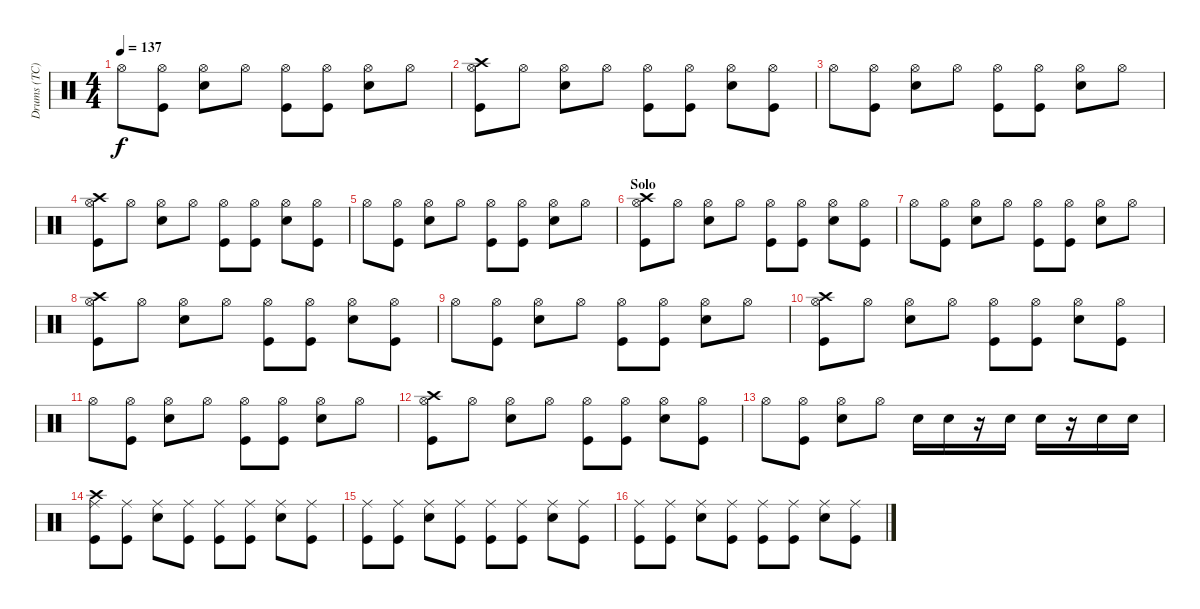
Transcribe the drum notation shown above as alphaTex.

\track ("Drums (TC)" "Drums (TC)") {instrument percussion}
\staff {score}
\articulation defaults
\ts (4 4)
\tempo 137
\clef neutral
\ks c "Hi-Hat (open)".8{dy f}
("Hi-Hat (open)" "Kick (hit)").8 ("Snare (hit) 2" "Hi-Hat (open)").8 "Hi-Hat (open)".8 ("Hi-Hat (open)" "Kick (hit)").8 ("Hi-Hat (open)" "Kick (hit)").8 ("Snare (hit) 2" "Hi-Hat (open)").8 "Hi-Hat (open)".8 |
("Crash high (hit)" "Hi-Hat (open)" "Kick (hit)").8 "Hi-Hat (open)".8 ("Snare (hit) 2" "Hi-Hat (open)").8 "Hi-Hat (open)".8 ("Hi-Hat (open)" "Kick (hit)").8 ("Hi-Hat (open)" "Kick (hit)").8 ("Snare (hit) 2" "Hi-Hat (open)").8 ("Hi-Hat (open)" "Kick (hit)").8 |
"Hi-Hat (open)".8 ("Hi-Hat (open)" "Kick (hit)").8 ("Snare (hit) 2" "Hi-Hat (open)").8 "Hi-Hat (open)".8 ("Hi-Hat (open)" "Kick (hit)").8 ("Hi-Hat (open)" "Kick (hit)").8 ("Snare (hit) 2" "Hi-Hat (open)").8 "Hi-Hat (open)".8 |
("Crash high (hit)" "Hi-Hat (open)" "Kick (hit)").8 "Hi-Hat (open)".8 ("Snare (hit) 2" "Hi-Hat (open)").8 "Hi-Hat (open)".8 ("Hi-Hat (open)" "Kick (hit)").8 ("Hi-Hat (open)" "Kick (hit)").8 ("Snare (hit) 2" "Hi-Hat (open)").8 ("Hi-Hat (open)" "Kick (hit)").8 |
"Hi-Hat (open)".8 ("Hi-Hat (open)" "Kick (hit)").8 ("Snare (hit) 2" "Hi-Hat (open)").8 "Hi-Hat (open)".8 ("Hi-Hat (open)" "Kick (hit)").8 ("Hi-Hat (open)" "Kick (hit)").8 ("Snare (hit) 2" "Hi-Hat (open)").8 "Hi-Hat (open)".8 |
\section ("" "Solo")
("Crash high (hit)" "Hi-Hat (open)" "Kick (hit)").8 "Hi-Hat (open)".8 ("Snare (hit) 2" "Hi-Hat (open)").8 "Hi-Hat (open)".8 ("Hi-Hat (open)" "Kick (hit)").8 ("Hi-Hat (open)" "Kick (hit)").8 ("Snare (hit) 2" "Hi-Hat (open)").8 ("Hi-Hat (open)" "Kick (hit)").8 |
"Hi-Hat (open)".8 ("Hi-Hat (open)" "Kick (hit)").8 ("Snare (hit) 2" "Hi-Hat (open)").8 "Hi-Hat (open)".8 ("Hi-Hat (open)" "Kick (hit)").8 ("Hi-Hat (open)" "Kick (hit)").8 ("Snare (hit) 2" "Hi-Hat (open)").8 "Hi-Hat (open)".8 |
("Crash high (hit)" "Hi-Hat (open)" "Kick (hit)").8 "Hi-Hat (open)".8 ("Snare (hit) 2" "Hi-Hat (open)").8 "Hi-Hat (open)".8 ("Hi-Hat (open)" "Kick (hit)").8 ("Hi-Hat (open)" "Kick (hit)").8 ("Snare (hit) 2" "Hi-Hat (open)").8 ("Hi-Hat (open)" "Kick (hit)").8 |
"Hi-Hat (open)".8 ("Hi-Hat (open)" "Kick (hit)").8 ("Snare (hit) 2" "Hi-Hat (open)").8 "Hi-Hat (open)".8 ("Hi-Hat (open)" "Kick (hit)").8 ("Hi-Hat (open)" "Kick (hit)").8 ("Snare (hit) 2" "Hi-Hat (open)").8 "Hi-Hat (open)".8 |
("Crash high (hit)" "Hi-Hat (open)" "Kick (hit)").8 "Hi-Hat (open)".8 ("Snare (hit) 2" "Hi-Hat (open)").8 "Hi-Hat (open)".8 ("Hi-Hat (open)" "Kick (hit)").8 ("Hi-Hat (open)" "Kick (hit)").8 ("Snare (hit) 2" "Hi-Hat (open)").8 ("Hi-Hat (open)" "Kick (hit)").8 |
"Hi-Hat (open)".8 ("Hi-Hat (open)" "Kick (hit)").8 ("Snare (hit) 2" "Hi-Hat (open)").8 "Hi-Hat (open)".8 ("Hi-Hat (open)" "Kick (hit)").8 ("Hi-Hat (open)" "Kick (hit)").8 ("Snare (hit) 2" "Hi-Hat (open)").8 "Hi-Hat (open)".8 |
("Crash high (hit)" "Hi-Hat (open)" "Kick (hit)").8 "Hi-Hat (open)".8 ("Snare (hit) 2" "Hi-Hat (open)").8 "Hi-Hat (open)".8 ("Hi-Hat (open)" "Kick (hit)").8 ("Hi-Hat (open)" "Kick (hit)").8 ("Snare (hit) 2" "Hi-Hat (open)").8 ("Hi-Hat (open)" "Kick (hit)").8 |
"Hi-Hat (open)".8 ("Hi-Hat (open)" "Kick (hit)").8 ("Snare (hit) 2" "Hi-Hat (open)").8 "Hi-Hat (open)".8 "Snare (hit) 2".16 "Snare (hit) 2".16 r.16 "Snare (hit) 2".16 "Snare (hit) 2".16 r.16 "Snare (hit) 2".16 "Snare (hit) 2".16 |
("Crash high (hit)" "Ride (middle)" "Kick (hit)").8 ("Ride (middle)" "Kick (hit)").8 ("Snare (hit) 2" "Ride (middle)").8 ("Ride (middle)" "Kick (hit)").8 ("Ride (middle)" "Kick (hit)").8 ("Ride (middle)" "Kick (hit)").8 ("Snare (hit) 2" "Ride (middle)").8 ("Ride (middle)" "Kick (hit)").8 |
("Ride (middle)" "Kick (hit)").8 ("Ride (middle)" "Kick (hit)").8 ("Snare (hit) 2" "Ride (middle)").8 ("Ride (middle)" "Kick (hit)").8 ("Ride (middle)" "Kick (hit)").8 ("Ride (middle)" "Kick (hit)").8 ("Snare (hit) 2" "Ride (middle)").8 ("Ride (middle)" "Kick (hit)").8 |
("Ride (middle)" "Kick (hit)").8 ("Ride (middle)" "Kick (hit)").8 ("Snare (hit) 2" "Ride (middle)").8 ("Ride (middle)" "Kick (hit)").8 ("Ride (middle)" "Kick (hit)").8 ("Ride (middle)" "Kick (hit)").8 ("Snare (hit) 2" "Ride (middle)").8 ("Ride (middle)" "Kick (hit)").8
